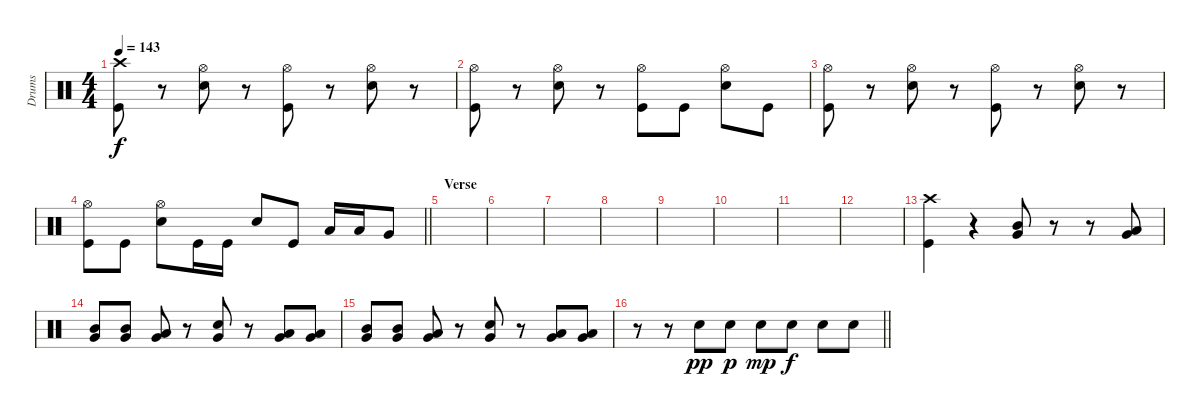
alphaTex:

\track ("Drums" "Drums") {instrument percussion}
\staff {score}
\articulation defaults
\ts (4 4)
\tempo 143
\clef neutral
\ks c
("Crash high (hit)" "Kick (hit)").8{dy f} r.8 ("Hi-Hat (open)" "Snare (hit) 2").8 r.8 ("Hi-Hat (open)" "Kick (hit)").8 r.8 ("Hi-Hat (open)" "Snare (hit) 2").8 r.8 |
("Hi-Hat (open)" "Kick (hit)").8 r.8 ("Hi-Hat (open)" "Snare (hit) 2").8 r.8 ("Hi-Hat (open)" "Kick (hit)").8 "Kick (hit)".8 ("Hi-Hat (open)" "Snare (hit) 2").8 "Kick (hit)".8 |
("Hi-Hat (open)" "Kick (hit)").8 r.8 ("Hi-Hat (open)" "Snare (hit) 2").8 r.8 ("Hi-Hat (open)" "Kick (hit)").8 r.8 ("Hi-Hat (open)" "Snare (hit) 2").8 r.8 |
\barLineRight lightlight
("Hi-Hat (open)" "Kick (hit)").8 "Kick (hit)".8 ("Hi-Hat (open)" "Snare (hit) 2").8 "Kick (hit)".16 "Kick (hit)".16 "Snare (hit) 2".8 "Kick (hit)".8 "Low Tom (hit)".16 "Low Tom (hit)".16 "Very Low Tom (hit)".8 |
\section ("" "Verse")
|
|
|
|
|
|
|
|
("Crash high (hit)" "Kick (hit)").4 r.4 ("Very Low Tom (hit)" "Mid Tom (hit)").8 r.8 r.8 ("Very Low Tom (hit)" "Low Tom (hit)").8 |
("Very Low Tom (hit)" "Mid Tom (hit)").8 ("Very Low Tom (hit)" "Mid Tom (hit)").8 ("Very Low Tom (hit)" "Low Tom (hit)").8 r.8 ("Very Low Tom (hit)" "Snare (hit) 2").8 r.8 ("Very Low Tom (hit)" "Low Tom (hit)").8 ("Very Low Tom (hit)" "Low Tom (hit)").8 |
("Very Low Tom (hit)" "Mid Tom (hit)").8 ("Very Low Tom (hit)" "Mid Tom (hit)").8 ("Very Low Tom (hit)" "Low Tom (hit)").8 r.8 ("Very Low Tom (hit)" "Snare (hit) 2").8 r.8 ("Very Low Tom (hit)" "Low Tom (hit)").8 ("Very Low Tom (hit)" "Low Tom (hit)").8 |
\barLineRight lightlight
r.8 r.8 "Snare (hit) 2".8{dy pp} "Snare (hit) 2".8{dy p} "Snare (hit) 2".8{dy mp} "Snare (hit) 2".8{dy f} "Snare (hit) 2".8 "Snare (hit) 2".8
